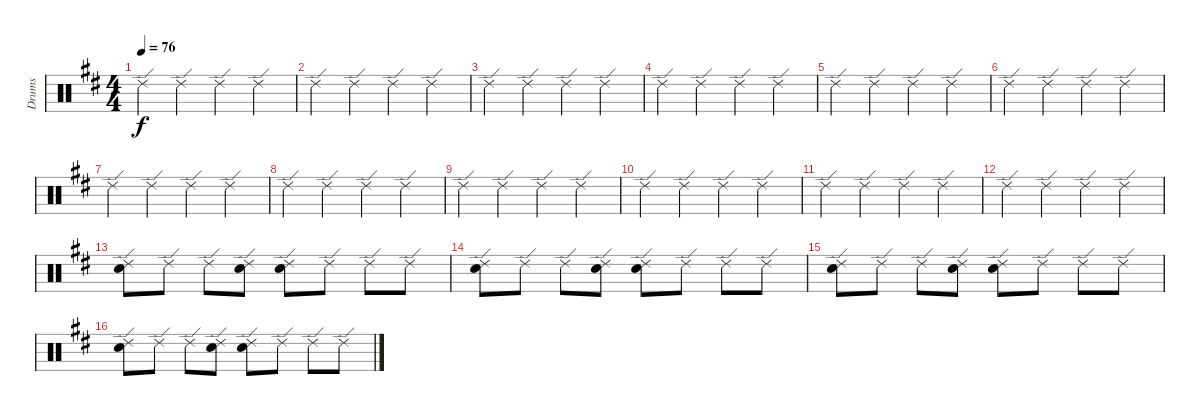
\track ("Drums" "Drums") {instrument percussion}
\staff {score}
\articulation defaults
\ts (4 4)
\tempo 76
\clef neutral
\ks d "Ride (edge) 2".4{dy f} "Ride (edge) 2".4 "Ride (edge) 2".4 "Ride (edge) 2".4
|
"Ride (edge) 2".4 "Ride (edge) 2".4 "Ride (edge) 2".4 "Ride (edge) 2".4 |
"Ride (edge) 2".4 "Ride (edge) 2".4 "Ride (edge) 2".4 "Ride (edge) 2".4 |
"Ride (edge) 2".4 "Ride (edge) 2".4 "Ride (edge) 2".4 "Ride (edge) 2".4 |
"Ride (edge) 2".4 "Ride (edge) 2".4 "Ride (edge) 2".4 "Ride (edge) 2".4 |
"Ride (edge) 2".4 "Ride (edge) 2".4 "Ride (edge) 2".4 "Ride (edge) 2".4 |
"Ride (edge) 2".4 "Ride (edge) 2".4 "Ride (edge) 2".4 "Ride (edge) 2".4 |
"Ride (edge) 2".4 "Ride (edge) 2".4 "Ride (edge) 2".4 "Ride (edge) 2".4 |
"Ride (edge) 2".4 "Ride (edge) 2".4 "Ride (edge) 2".4 "Ride (edge) 2".4 |
"Ride (edge) 2".4 "Ride (edge) 2".4 "Ride (edge) 2".4 "Ride (edge) 2".4 |
"Ride (edge) 2".4 "Ride (edge) 2".4 "Ride (edge) 2".4 "Ride (edge) 2".4 |
"Ride (edge) 2".4 "Ride (edge) 2".4 "Ride (edge) 2".4 "Ride (edge) 2".4 |
("Ride (edge) 2" "Snare (hit) 2").8 "Ride (edge) 2".8 "Ride (edge) 2".8 ("Ride (edge) 2" "Snare (hit) 2").8 ("Ride (edge) 2" "Snare (hit) 2").8 "Ride (edge) 2".8 "Ride (edge) 2".8 "Ride (edge) 2".8 |
("Ride (edge) 2" "Snare (hit) 2").8 "Ride (edge) 2".8 "Ride (edge) 2".8 ("Ride (edge) 2" "Snare (hit) 2").8 ("Ride (edge) 2" "Snare (hit) 2").8 "Ride (edge) 2".8 "Ride (edge) 2".8 "Ride (edge) 2".8 |
("Ride (edge) 2" "Snare (hit) 2").8 "Ride (edge) 2".8 "Ride (edge) 2".8 ("Ride (edge) 2" "Snare (hit) 2").8 ("Ride (edge) 2" "Snare (hit) 2").8 "Ride (edge) 2".8 "Ride (edge) 2".8 "Ride (edge) 2".8 |
("Ride (edge) 2" "Snare (hit) 2").8 "Ride (edge) 2".8 "Ride (edge) 2".8 ("Ride (edge) 2" "Snare (hit) 2").8 ("Ride (edge) 2" "Snare (hit) 2").8 "Ride (edge) 2".8 "Ride (edge) 2".8 "Ride (edge) 2".8
